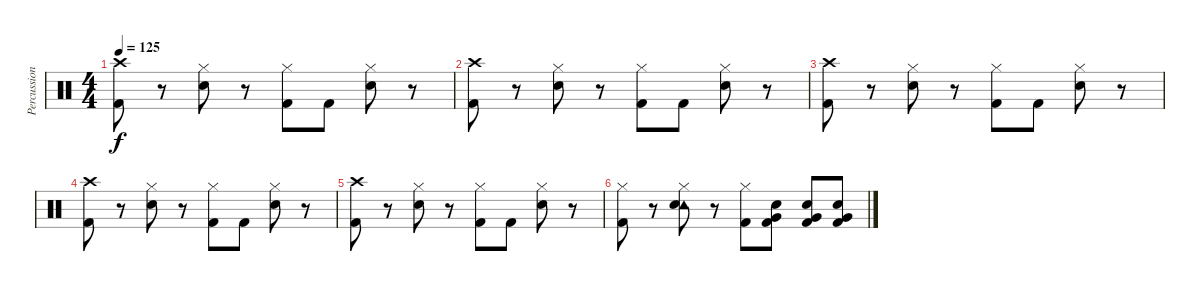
\track ("Percussion" "Percussion") {instrument percussion}
\staff {score}
\articulation defaults
\ts (4 4)
\tempo 125
\clef neutral
\ks c
("Crash high (hit)" "Kick (hit) 2").8{dy f} r.8 ("Hi-Hat (closed)" "Electric Snare (hit)").8 r.8 ("Hi-Hat (closed)" "Kick (hit) 2").8 "Kick (hit) 2".8 ("Hi-Hat (closed)" "Electric Snare (hit)").8 r.8 |
("Crash high (hit)" "Kick (hit) 2").8 r.8 ("Hi-Hat (closed)" "Electric Snare (hit)").8 r.8 ("Hi-Hat (closed)" "Kick (hit) 2").8 "Kick (hit) 2".8 ("Hi-Hat (closed)" "Electric Snare (hit)").8 r.8 |
("Crash high (hit)" "Kick (hit) 2").8 r.8 ("Hi-Hat (closed)" "Electric Snare (hit)").8 r.8 ("Hi-Hat (closed)" "Kick (hit) 2").8 "Kick (hit) 2".8 ("Hi-Hat (closed)" "Electric Snare (hit)").8 r.8 |
("Crash high (hit)" "Kick (hit) 2").8 r.8 ("Hi-Hat (closed)" "Electric Snare (hit)").8 r.8 ("Hi-Hat (closed)" "Kick (hit) 2").8 "Kick (hit) 2".8 ("Hi-Hat (closed)" "Electric Snare (hit)").8 r.8 |
("Crash high (hit)" "Kick (hit) 2").8 r.8 ("Hi-Hat (closed)" "Electric Snare (hit)").8 r.8 ("Hi-Hat (closed)" "Kick (hit) 2").8 "Kick (hit) 2".8 ("Hi-Hat (closed)" "Electric Snare (hit)").8 r.8 |
("Hi-Hat (closed)" "Kick (hit) 2").8 r.8 ("Tambourine (hit)" "Hi-Hat (closed)" "Electric Snare (hit)").8 r.8 ("Hi-Hat (closed)" "Kick (hit) 2").8 ("Very Low Tom (hit)" "Electric Snare (hit)" "Kick (hit) 2").8 ("Very Low Tom (hit)" "Electric Snare (hit)" "Kick (hit) 2").8 ("Very Low Tom (hit)" "Electric Snare (hit)" "Kick (hit) 2").8
